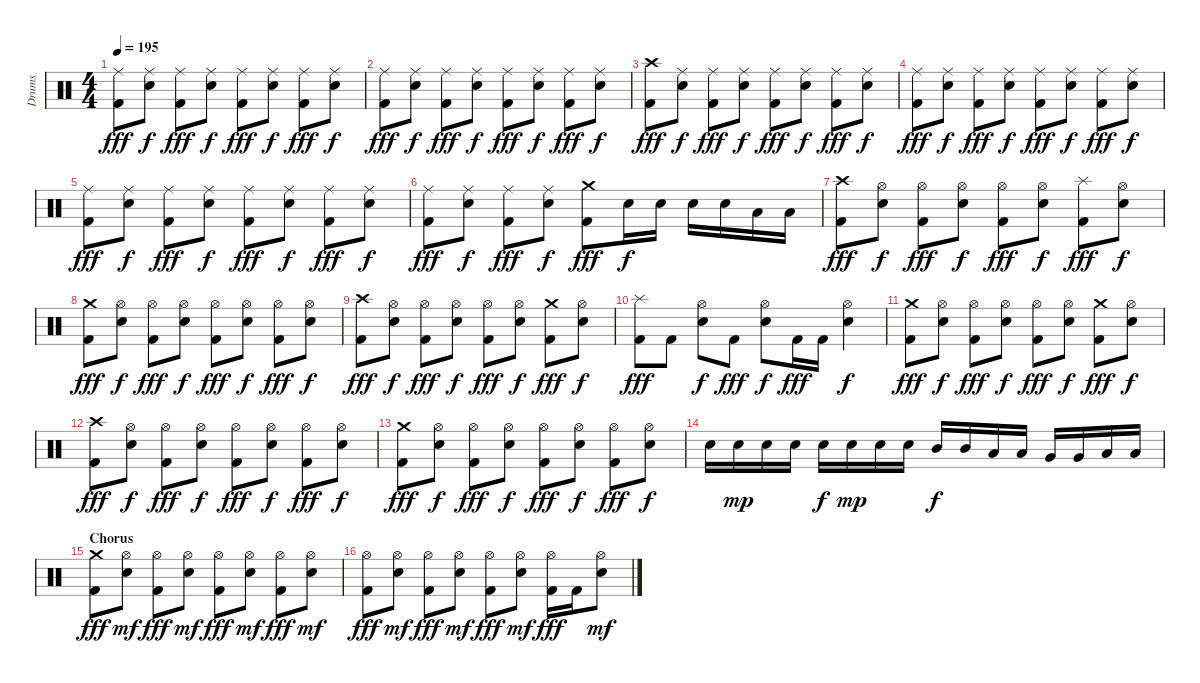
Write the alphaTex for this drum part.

\track ("Drums" "Drums") {instrument percussion}
\staff {score}
\articulation defaults
\ts (4 4)
\tempo 195
\clef neutral
\ks c
("Ride (middle)" "Kick (hit) 2").8{dy fff} ("Ride (middle)" "Snare (hit) 2").8{dy f} ("Ride (middle)" "Kick (hit) 2").8{dy fff} ("Ride (middle)" "Snare (hit) 2").8{dy f} ("Ride (middle)" "Kick (hit) 2").8{dy fff} ("Ride (middle)" "Snare (hit) 2").8{dy f} ("Ride (middle)" "Kick (hit) 2").8{dy fff} ("Ride (middle)" "Snare (hit) 2").8{dy f} |
("Ride (middle)" "Kick (hit) 2").8{dy fff} ("Ride (middle)" "Snare (hit) 2").8{dy f} ("Ride (middle)" "Kick (hit) 2").8{dy fff} ("Ride (middle)" "Snare (hit) 2").8{dy f} ("Ride (middle)" "Kick (hit) 2").8{dy fff} ("Ride (middle)" "Snare (hit) 2").8{dy f} ("Ride (middle)" "Kick (hit) 2").8{dy fff} ("Ride (middle)" "Snare (hit) 2").8{dy f} |
("Crash high (hit)" "Kick (hit) 2").8{dy fff} ("Ride (middle)" "Snare (hit) 2").8{dy f} ("Ride (middle)" "Kick (hit) 2").8{dy fff} ("Ride (middle)" "Snare (hit) 2").8{dy f} ("Ride (middle)" "Kick (hit) 2").8{dy fff} ("Ride (middle)" "Snare (hit) 2").8{dy f} ("Ride (middle)" "Kick (hit) 2").8{dy fff} ("Ride (middle)" "Snare (hit) 2").8{dy f} |
("Ride (middle)" "Kick (hit) 2").8{dy fff} ("Ride (middle)" "Snare (hit) 2").8{dy f} ("Ride (middle)" "Kick (hit) 2").8{dy fff} ("Ride (middle)" "Snare (hit) 2").8{dy f} ("Ride (middle)" "Kick (hit) 2").8{dy fff} ("Ride (middle)" "Snare (hit) 2").8{dy f} ("Ride (middle)" "Kick (hit) 2").8{dy fff} ("Ride (middle)" "Snare (hit) 2").8{dy f} |
("Ride (middle)" "Kick (hit) 2").8{dy fff} ("Ride (middle)" "Snare (hit) 2").8{dy f} ("Ride (middle)" "Kick (hit) 2").8{dy fff} ("Ride (middle)" "Snare (hit) 2").8{dy f} ("Ride (middle)" "Kick (hit) 2").8{dy fff} ("Ride (middle)" "Snare (hit) 2").8{dy f} ("Ride (middle)" "Kick (hit) 2").8{dy fff} ("Ride (middle)" "Snare (hit) 2").8{dy f} |
("Ride (middle)" "Kick (hit) 2").8{dy fff} ("Ride (middle)" "Snare (hit) 2").8{dy f} ("Ride (middle)" "Kick (hit) 2").8{dy fff} ("Ride (middle)" "Snare (hit) 2").8{dy f} ("Crash medium (hit)" "Kick (hit) 2").8{dy fff} "Snare (hit) 2".16{dy f} "Snare (hit) 2".16 "Snare (hit) 2".16 "Snare (hit) 2".16 "Low Tom (hit)".16 "Low Tom (hit)".16 |
("Crash high (hit)" "Kick (hit) 2").8{dy fff} ("Hi-Hat (open)" "Snare (hit) 2").8{dy f} ("Hi-Hat (open)" "Kick (hit) 2").8{dy fff} ("Hi-Hat (open)" "Snare (hit) 2").8{dy f} ("Hi-Hat (open)" "Kick (hit) 2").8{dy fff} ("Hi-Hat (open)" "Snare (hit) 2").8{dy f} ("Splash (hit)" "Kick (hit) 2").8{dy fff} ("Hi-Hat (open)" "Snare (hit) 2").8{dy f} |
("Crash medium (hit)" "Kick (hit) 2").8{dy fff} ("Hi-Hat (open)" "Snare (hit) 2").8{dy f} ("Hi-Hat (open)" "Kick (hit) 2").8{dy fff} ("Hi-Hat (open)" "Snare (hit) 2").8{dy f} ("Hi-Hat (open)" "Kick (hit) 2").8{dy fff} ("Hi-Hat (open)" "Snare (hit) 2").8{dy f} ("Hi-Hat (open)" "Kick (hit) 2").8{dy fff} ("Hi-Hat (open)" "Snare (hit) 2").8{dy f} |
("Crash high (hit)" "Kick (hit) 2").8{dy fff} ("Hi-Hat (open)" "Snare (hit) 2").8{dy f} ("Hi-Hat (open)" "Kick (hit) 2").8{dy fff} ("Hi-Hat (open)" "Snare (hit) 2").8{dy f} ("Hi-Hat (open)" "Kick (hit) 2").8{dy fff} ("Hi-Hat (open)" "Snare (hit) 2").8{dy f} ("Crash medium (hit)" "Kick (hit) 2").8{dy fff} ("Hi-Hat (open)" "Snare (hit) 2").8{dy f} |
("Splash (hit)" "Kick (hit) 2").8{dy fff} "Kick (hit) 2".8 ("Hi-Hat (open)" "Snare (hit) 2").8{dy f} "Kick (hit) 2".8{dy fff} ("Hi-Hat (open)" "Snare (hit) 2").8{dy f} "Kick (hit) 2".16{dy fff} "Kick (hit) 2".16 ("Hi-Hat (open)" "Snare (hit) 2").4{dy f} |
("Crash medium (hit)" "Kick (hit) 2").8{dy fff} ("Hi-Hat (open)" "Snare (hit) 2").8{dy f} ("Hi-Hat (open)" "Kick (hit) 2").8{dy fff} ("Hi-Hat (open)" "Snare (hit) 2").8{dy f} ("Hi-Hat (open)" "Kick (hit) 2").8{dy fff} ("Hi-Hat (open)" "Snare (hit) 2").8{dy f} ("Crash medium (hit)" "Kick (hit) 2").8{dy fff} ("Hi-Hat (open)" "Snare (hit) 2").8{dy f} |
("Crash high (hit)" "Kick (hit) 2").8{dy fff} ("Hi-Hat (open)" "Snare (hit) 2").8{dy f} ("Hi-Hat (open)" "Kick (hit) 2").8{dy fff} ("Hi-Hat (open)" "Snare (hit) 2").8{dy f} ("Hi-Hat (open)" "Kick (hit) 2").8{dy fff} ("Hi-Hat (open)" "Snare (hit) 2").8{dy f} ("Hi-Hat (open)" "Kick (hit) 2").8{dy fff} ("Hi-Hat (open)" "Snare (hit) 2").8{dy f} |
("Crash medium (hit)" "Kick (hit) 2").8{dy fff} ("Hi-Hat (open)" "Snare (hit) 2").8{dy f} ("Hi-Hat (open)" "Kick (hit) 2").8{dy fff} ("Hi-Hat (open)" "Snare (hit) 2").8{dy f} ("Hi-Hat (open)" "Kick (hit) 2").8{dy fff} ("Hi-Hat (open)" "Snare (hit) 2").8{dy f} ("Hi-Hat (open)" "Kick (hit) 2").8{dy fff} ("Hi-Hat (open)" "Snare (hit) 2").8{dy f} |
"Snare (hit) 2".16 "Snare (hit) 2".16{dy mp} "Snare (hit) 2".16 "Snare (hit) 2".16 "Snare (hit) 2".16{dy f} "Snare (hit) 2".16{dy mp} "Snare (hit) 2".16 "Snare (hit) 2".16 "Mid Tom (hit)".16{dy f} "Mid Tom (hit)".16 "Low Tom (hit)".16 "Low Tom (hit)".16 "Very Low Tom (hit)".16 "Very Low Tom (hit)".16 "Low Floor Tom (hit)".16 "Low Floor Tom (hit)".16 |
\section ("" "Chorus")
("Crash medium (hit)" "Kick (hit) 2").8{dy fff} ("Hi-Hat (open)" "Snare (hit) 2").8{dy mf} ("Hi-Hat (open)" "Kick (hit) 2").8{dy fff} ("Hi-Hat (open)" "Snare (hit) 2").8{dy mf} ("Hi-Hat (open)" "Kick (hit) 2").8{dy fff} ("Hi-Hat (open)" "Snare (hit) 2").8{dy mf} ("Hi-Hat (open)" "Kick (hit) 2").8{dy fff} ("Hi-Hat (open)" "Snare (hit) 2").8{dy mf} |
("Hi-Hat (open)" "Kick (hit) 2").8{dy fff} ("Hi-Hat (open)" "Snare (hit) 2").8{dy mf} ("Hi-Hat (open)" "Kick (hit) 2").8{dy fff} ("Hi-Hat (open)" "Snare (hit) 2").8{dy mf} ("Hi-Hat (open)" "Kick (hit) 2").8{dy fff} ("Hi-Hat (open)" "Snare (hit) 2").8{dy mf} ("Hi-Hat (open)" "Kick (hit) 2").16{dy fff} "Kick (hit) 2".16 ("Hi-Hat (open)" "Snare (hit) 2").8{dy mf}
